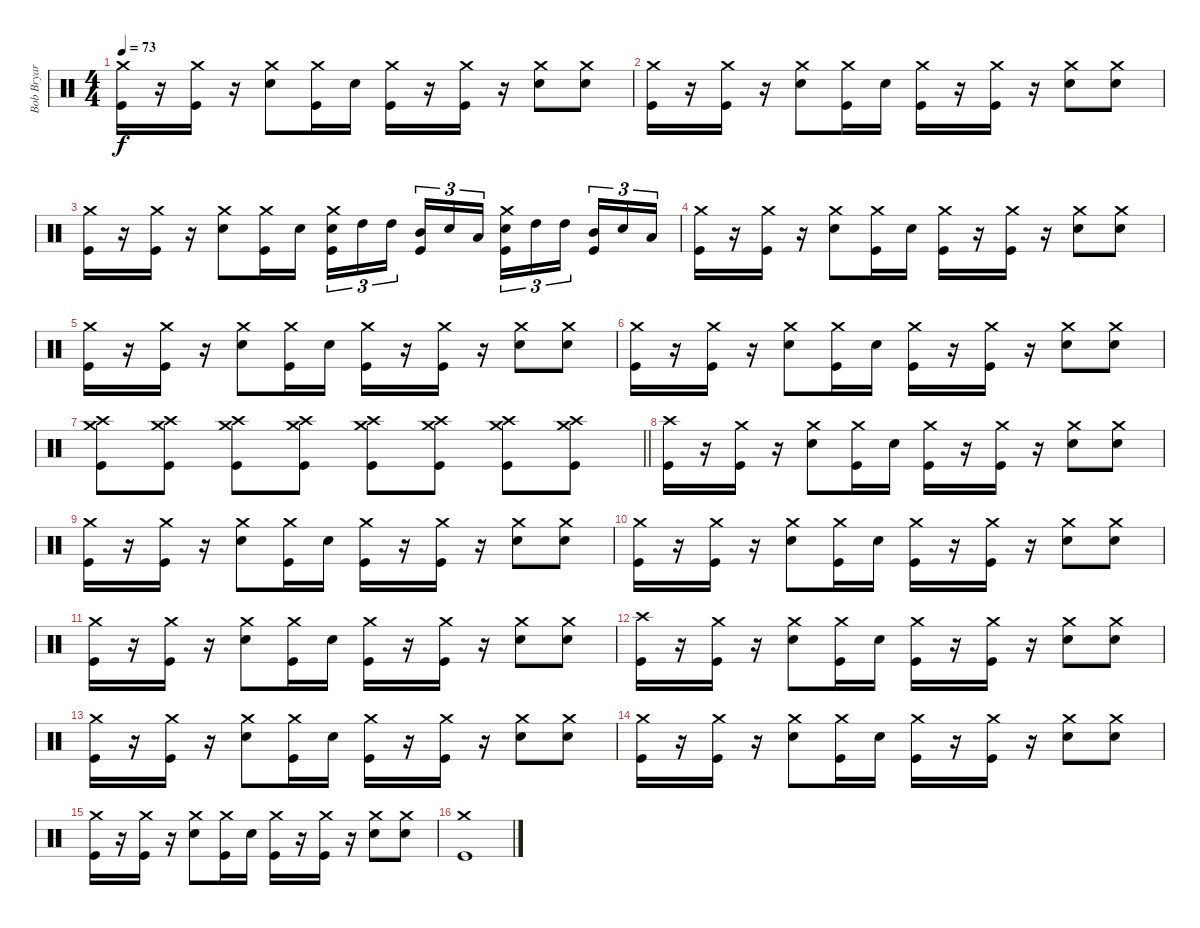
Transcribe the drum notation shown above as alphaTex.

\track ("Bob Bryar [Drums]" "Bob Bryar ") {instrument percussion}
\staff {score}
\articulation defaults
\ts (4 4)
\tempo 73
\clef neutral
\ks c
("Crash medium (hit)" "Kick (hit)").16{dy f} r.16 ("Crash medium (hit)" "Kick (hit)").16 r.16 ("Crash medium (hit)" "Snare (hit) 2").8 ("Crash medium (hit)" "Kick (hit)").16 "Snare (hit) 2".16 ("Crash medium (hit)" "Kick (hit)").16 r.16 ("Crash medium (hit)" "Kick (hit)").16 r.16 ("Crash medium (hit)" "Snare (hit) 2").8 ("Crash medium (hit)" "Snare (hit) 2").8 |
("Crash medium (hit)" "Kick (hit)").16 r.16 ("Crash medium (hit)" "Kick (hit)").16 r.16 ("Crash medium (hit)" "Snare (hit) 2").8 ("Crash medium (hit)" "Kick (hit)").16 "Snare (hit) 2".16 ("Crash medium (hit)" "Kick (hit)").16 r.16 ("Crash medium (hit)" "Kick (hit)").16 r.16 ("Crash medium (hit)" "Snare (hit) 2").8 ("Crash medium (hit)" "Snare (hit) 2").8 |
("Crash medium (hit)" "Kick (hit)").16 r.16 ("Crash medium (hit)" "Kick (hit)").16 r.16 ("Crash medium (hit)" "Snare (hit) 2").8 ("Crash medium (hit)" "Kick (hit)").16 "Snare (hit) 2".16 ("Crash medium (hit)" "Snare (hit) 2" "Kick (hit)").16{tu (3 2)} "High Tom (hit)".16{tu (3 2)} "High Tom (hit)".16{tu (3 2) beam splitsecondary} ("Mid Tom (hit)" "Kick (hit)").16{tu (3 2)} "Snare (hit) 2".16{tu (3 2)} "Low Tom (hit)".16{tu (3 2)} ("Crash medium (hit)" "Snare (hit) 2" "Kick (hit)").16{tu (3 2)} "High Tom (hit)".16{tu (3 2)} "High Tom (hit)".16{tu (3 2) beam splitsecondary} ("Mid Tom (hit)" "Kick (hit)").16{tu (3 2)} "Snare (hit) 2".16{tu (3 2)} "Low Tom (hit)".16{tu (3 2)} |
("Crash medium (hit)" "Kick (hit)").16 r.16 ("Crash medium (hit)" "Kick (hit)").16 r.16 ("Crash medium (hit)" "Snare (hit) 2").8 ("Crash medium (hit)" "Kick (hit)").16 "Snare (hit) 2".16 ("Crash medium (hit)" "Kick (hit)").16 r.16 ("Crash medium (hit)" "Kick (hit)").16 r.16 ("Crash medium (hit)" "Snare (hit) 2").8 ("Crash medium (hit)" "Snare (hit) 2").8 |
("Crash medium (hit)" "Kick (hit)").16 r.16 ("Crash medium (hit)" "Kick (hit)").16 r.16 ("Crash medium (hit)" "Snare (hit) 2").8 ("Crash medium (hit)" "Kick (hit)").16 "Snare (hit) 2".16 ("Crash medium (hit)" "Kick (hit)").16 r.16 ("Crash medium (hit)" "Kick (hit)").16 r.16 ("Crash medium (hit)" "Snare (hit) 2").8 ("Crash medium (hit)" "Snare (hit) 2").8 |
("Crash medium (hit)" "Kick (hit)").16 r.16 ("Crash medium (hit)" "Kick (hit)").16 r.16 ("Crash medium (hit)" "Snare (hit) 2").8 ("Crash medium (hit)" "Kick (hit)").16 "Snare (hit) 2".16 ("Crash medium (hit)" "Kick (hit)").16 r.16 ("Crash medium (hit)" "Kick (hit)").16 r.16 ("Crash medium (hit)" "Snare (hit) 2").8 ("Crash medium (hit)" "Snare (hit) 2").8 |
\barLineRight lightlight
("Crash medium (hit)" "Kick (hit)" "Crash high (hit)").8 ("Crash medium (hit)" "Kick (hit)" "Crash high (hit)").8 ("Crash medium (hit)" "Kick (hit)" "Crash high (hit)").8 ("Crash medium (hit)" "Kick (hit)" "Crash high (hit)").8 ("Crash medium (hit)" "Kick (hit)" "Crash high (hit)").8 ("Crash medium (hit)" "Kick (hit)" "Crash high (hit)").8 ("Crash medium (hit)" "Kick (hit)" "Crash high (hit)").8 ("Crash medium (hit)" "Kick (hit)" "Crash high (hit)").8 |
("Crash high (hit)" "Kick (hit)").16 r.16 ("Crash medium (hit)" "Kick (hit)").16 r.16 ("Crash medium (hit)" "Snare (hit) 2").8 ("Crash medium (hit)" "Kick (hit)").16 "Snare (hit) 2".16 ("Crash medium (hit)" "Kick (hit)").16 r.16 ("Crash medium (hit)" "Kick (hit)").16 r.16 ("Crash medium (hit)" "Snare (hit) 2").8 ("Crash medium (hit)" "Snare (hit) 2").8 |
("Crash medium (hit)" "Kick (hit)").16 r.16 ("Crash medium (hit)" "Kick (hit)").16 r.16 ("Crash medium (hit)" "Snare (hit) 2").8 ("Crash medium (hit)" "Kick (hit)").16 "Snare (hit) 2".16 ("Crash medium (hit)" "Kick (hit)").16 r.16 ("Crash medium (hit)" "Kick (hit)").16 r.16 ("Crash medium (hit)" "Snare (hit) 2").8 ("Crash medium (hit)" "Snare (hit) 2").8 |
("Crash medium (hit)" "Kick (hit)").16 r.16 ("Crash medium (hit)" "Kick (hit)").16 r.16 ("Crash medium (hit)" "Snare (hit) 2").8 ("Crash medium (hit)" "Kick (hit)").16 "Snare (hit) 2".16 ("Crash medium (hit)" "Kick (hit)").16 r.16 ("Crash medium (hit)" "Kick (hit)").16 r.16 ("Crash medium (hit)" "Snare (hit) 2").8 ("Crash medium (hit)" "Snare (hit) 2").8 |
("Crash medium (hit)" "Kick (hit)").16 r.16 ("Crash medium (hit)" "Kick (hit)").16 r.16 ("Crash medium (hit)" "Snare (hit) 2").8 ("Crash medium (hit)" "Kick (hit)").16 "Snare (hit) 2".16 ("Crash medium (hit)" "Kick (hit)").16 r.16 ("Crash medium (hit)" "Kick (hit)").16 r.16 ("Crash medium (hit)" "Snare (hit) 2").8 ("Crash medium (hit)" "Snare (hit) 2").8 |
("Crash high (hit)" "Kick (hit)").16 r.16 ("Crash medium (hit)" "Kick (hit)").16 r.16 ("Crash medium (hit)" "Snare (hit) 2").8 ("Crash medium (hit)" "Kick (hit)").16 "Snare (hit) 2".16 ("Crash medium (hit)" "Kick (hit)").16 r.16 ("Crash medium (hit)" "Kick (hit)").16 r.16 ("Crash medium (hit)" "Snare (hit) 2").8 ("Crash medium (hit)" "Snare (hit) 2").8 |
("Crash medium (hit)" "Kick (hit)").16 r.16 ("Crash medium (hit)" "Kick (hit)").16 r.16 ("Crash medium (hit)" "Snare (hit) 2").8 ("Crash medium (hit)" "Kick (hit)").16 "Snare (hit) 2".16 ("Crash medium (hit)" "Kick (hit)").16 r.16 ("Crash medium (hit)" "Kick (hit)").16 r.16 ("Crash medium (hit)" "Snare (hit) 2").8 ("Crash medium (hit)" "Snare (hit) 2").8 |
("Crash medium (hit)" "Kick (hit)").16 r.16 ("Crash medium (hit)" "Kick (hit)").16 r.16 ("Crash medium (hit)" "Snare (hit) 2").8 ("Crash medium (hit)" "Kick (hit)").16 "Snare (hit) 2".16 ("Crash medium (hit)" "Kick (hit)").16 r.16 ("Crash medium (hit)" "Kick (hit)").16 r.16 ("Crash medium (hit)" "Snare (hit) 2").8 ("Crash medium (hit)" "Snare (hit) 2").8 |
("Crash medium (hit)" "Kick (hit)").16 r.16 ("Crash medium (hit)" "Kick (hit)").16 r.16 ("Crash medium (hit)" "Snare (hit) 2").8 ("Crash medium (hit)" "Kick (hit)").16 "Snare (hit) 2".16 ("Crash medium (hit)" "Kick (hit)").16 r.16 ("Crash medium (hit)" "Kick (hit)").16 r.16 ("Crash medium (hit)" "Snare (hit) 2").8 ("Crash medium (hit)" "Snare (hit) 2").8 |
("Crash medium (hit)" "Kick (hit)").1
